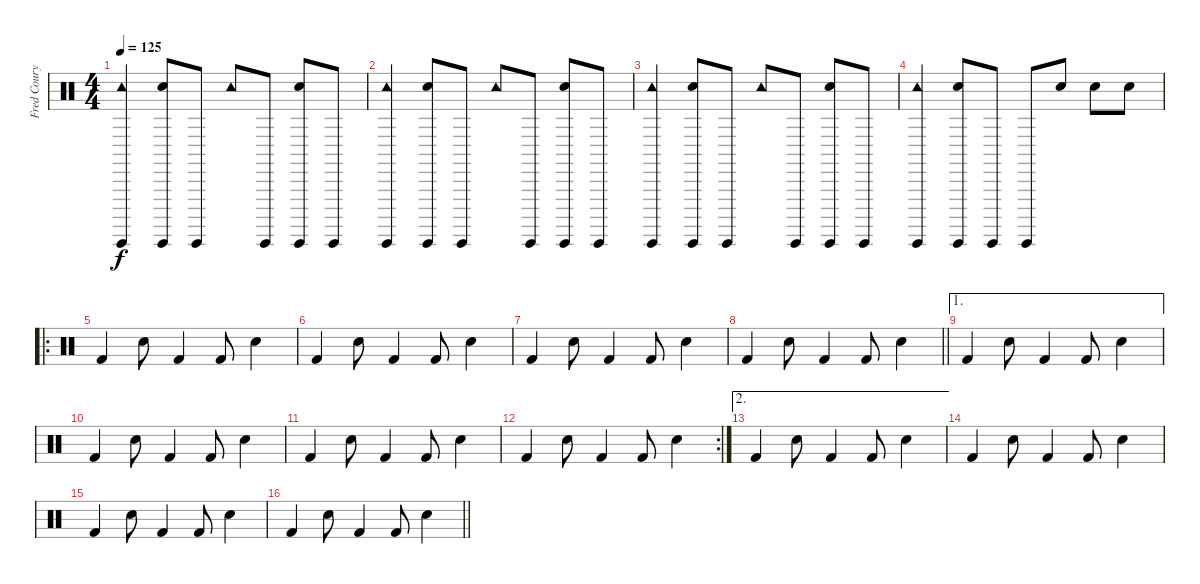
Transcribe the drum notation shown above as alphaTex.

\track ("Fred Coury - Drums" "Fred Coury") {instrument percussion}
\staff {score}
\articulation defaults
\ts (4 4)
\tempo 125
\clef neutral
\ks c
("Tambourine (hit)" "Guiro (hit)").4{dy f} ("Snare (hit) 2" "Guiro (hit)").8 "Guiro (hit)".8 "Tambourine (hit)".8 "Guiro (hit)".8 ("Snare (hit) 2" "Guiro (hit)").8 "Guiro (hit)".8 |
("Tambourine (hit)" "Guiro (hit)").4 ("Snare (hit) 2" "Guiro (hit)").8 "Guiro (hit)".8 "Tambourine (hit)".8 "Guiro (hit)".8 ("Snare (hit) 2" "Guiro (hit)").8 "Guiro (hit)".8 |
("Tambourine (hit)" "Guiro (hit)").4 ("Snare (hit) 2" "Guiro (hit)").8 "Guiro (hit)".8 "Tambourine (hit)".8 "Guiro (hit)".8 ("Snare (hit) 2" "Guiro (hit)").8 "Guiro (hit)".8 |
("Tambourine (hit)" "Guiro (hit)").4 ("Snare (hit) 2" "Guiro (hit)").8 "Guiro (hit)".8 "Guiro (hit)".8 "Snare (hit) 2".8 "Snare (hit) 2".8 "Snare (hit) 2".8 |
\ro "Kick (hit) 2".4 "Snare (hit) 2".8 "Kick (hit) 2".4 "Kick (hit) 2".8 "Snare (hit) 2".4
|
"Kick (hit) 2".4 "Snare (hit) 2".8 "Kick (hit) 2".4 "Kick (hit) 2".8 "Snare (hit) 2".4 |
"Kick (hit) 2".4 "Snare (hit) 2".8 "Kick (hit) 2".4 "Kick (hit) 2".8 "Snare (hit) 2".4 |
\barLineRight lightlight "Kick (hit) 2".4 "Snare (hit) 2".8 "Kick (hit) 2".4 "Kick (hit) 2".8 "Snare (hit) 2".4
|
\ae 1 "Kick (hit) 2".4 "Snare (hit) 2".8 "Kick (hit) 2".4 "Kick (hit) 2".8 "Snare (hit) 2".4
|
"Kick (hit) 2".4 "Snare (hit) 2".8 "Kick (hit) 2".4 "Kick (hit) 2".8 "Snare (hit) 2".4 |
"Kick (hit) 2".4 "Snare (hit) 2".8 "Kick (hit) 2".4 "Kick (hit) 2".8 "Snare (hit) 2".4 |
\rc 2 "Kick (hit) 2".4 "Snare (hit) 2".8 "Kick (hit) 2".4 "Kick (hit) 2".8 "Snare (hit) 2".4
|
\ae 2 "Kick (hit) 2".4 "Snare (hit) 2".8 "Kick (hit) 2".4 "Kick (hit) 2".8 "Snare (hit) 2".4
|
"Kick (hit) 2".4 "Snare (hit) 2".8 "Kick (hit) 2".4 "Kick (hit) 2".8 "Snare (hit) 2".4 |
"Kick (hit) 2".4 "Snare (hit) 2".8 "Kick (hit) 2".4 "Kick (hit) 2".8 "Snare (hit) 2".4 |
\barLineRight lightlight "Kick (hit) 2".4 "Snare (hit) 2".8 "Kick (hit) 2".4 "Kick (hit) 2".8 "Snare (hit) 2".4
